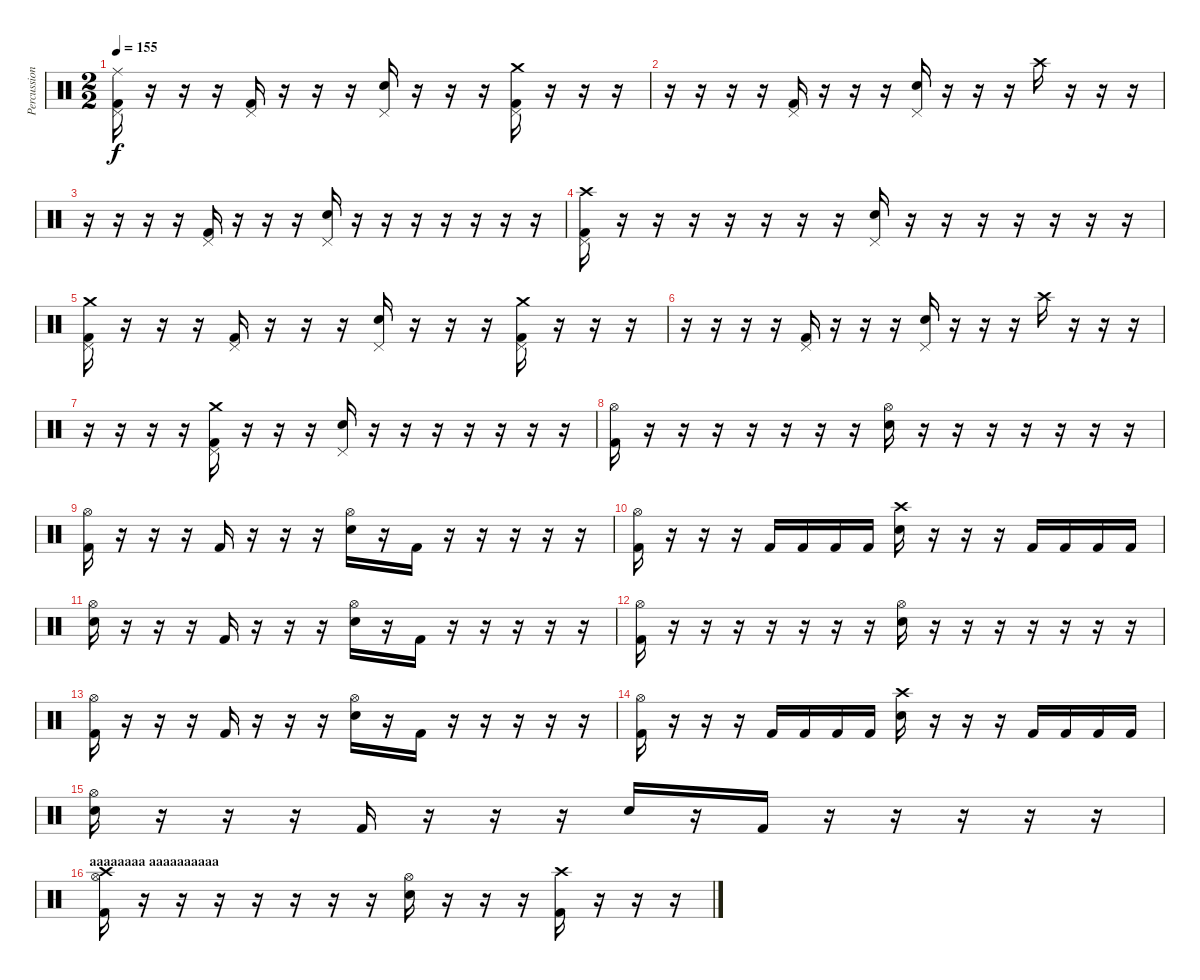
\track ("Percussion" "Percussion") {instrument percussion}
\staff {score}
\articulation defaults
\ts (2 2)
\tempo 155
\clef neutral
\ks c
("Ride (middle)" "Pedal Hi-Hat (hit)" "Kick (hit) 2").16{dy f} r.16 r.16 r.16 ("Pedal Hi-Hat (hit)" "Kick (hit) 2").16 r.16 r.16 r.16 ("Pedal Hi-Hat (hit)" "Snare (hit) 2").16 r.16 r.16 r.16 ("Crash medium (hit)" "Pedal Hi-Hat (hit)" "Kick (hit) 2").16 r.16 r.16 r.16 |
r.16 r.16 r.16 r.16 ("Pedal Hi-Hat (hit)" "Kick (hit) 2").16 r.16 r.16 r.16 ("Pedal Hi-Hat (hit)" "Snare (hit) 2").16 r.16 r.16 r.16 "Crash high (hit)".16 r.16 r.16 r.16 |
r.16 r.16 r.16 r.16 ("Pedal Hi-Hat (hit)" "Kick (hit) 2").16 r.16 r.16 r.16 ("Pedal Hi-Hat (hit)" "Snare (hit) 2").16 r.16 r.16 r.16 r.16 r.16 r.16 r.16 |
("Crash high (hit)" "Pedal Hi-Hat (hit)" "Kick (hit) 2").16 r.16 r.16 r.16 r.16 r.16 r.16 r.16 ("Pedal Hi-Hat (hit)" "Snare (hit) 2").16 r.16 r.16 r.16 r.16 r.16 r.16 r.16 |
("Crash medium (hit)" "Pedal Hi-Hat (hit)" "Kick (hit) 2").16 r.16 r.16 r.16 ("Pedal Hi-Hat (hit)" "Kick (hit) 2").16 r.16 r.16 r.16 ("Pedal Hi-Hat (hit)" "Snare (hit) 2").16 r.16 r.16 r.16 ("Crash medium (hit)" "Pedal Hi-Hat (hit)" "Kick (hit) 2").16 r.16 r.16 r.16 |
r.16 r.16 r.16 r.16 ("Pedal Hi-Hat (hit)" "Kick (hit) 2").16 r.16 r.16 r.16 ("Pedal Hi-Hat (hit)" "Snare (hit) 2").16 r.16 r.16 r.16 "Crash high (hit)".16 r.16 r.16 r.16 |
r.16 r.16 r.16 r.16 ("Crash medium (hit)" "Pedal Hi-Hat (hit)" "Kick (hit) 2").16 r.16 r.16 r.16 ("Pedal Hi-Hat (hit)" "Snare (hit) 2").16 r.16 r.16 r.16 r.16 r.16 r.16 r.16 |
("Hi-Hat (open)" "Kick (hit) 2").16 r.16 r.16 r.16 r.16 r.16 r.16 r.16 ("Hi-Hat (open)" "Snare (hit) 2").16 r.16 r.16 r.16 r.16 r.16 r.16 r.16 |
("Hi-Hat (open)" "Kick (hit) 2").16 r.16 r.16 r.16 "Kick (hit) 2".16 r.16 r.16 r.16 ("Hi-Hat (open)" "Snare (hit) 2").16 r.16 "Kick (hit) 2".16 r.16 r.16 r.16 r.16 r.16 |
("Hi-Hat (open)" "Kick (hit) 2").16 r.16 r.16 r.16 "Kick (hit) 2".16 "Kick (hit) 2".16 "Kick (hit) 2".16 "Kick (hit) 2".16 ("Crash high (hit)" "Snare (hit) 2").16 r.16 r.16 r.16 "Kick (hit) 2".16 "Kick (hit) 2".16 "Kick (hit) 2".16 "Kick (hit) 2".16 |
("Hi-Hat (open)" "Snare (hit) 2").16 r.16 r.16 r.16 "Kick (hit) 2".16 r.16 r.16 r.16 ("Hi-Hat (open)" "Snare (hit) 2").16 r.16 "Kick (hit) 2".16 r.16 r.16 r.16 r.16 r.16 |
("Hi-Hat (open)" "Kick (hit) 2").16 r.16 r.16 r.16 r.16 r.16 r.16 r.16 ("Hi-Hat (open)" "Snare (hit) 2").16 r.16 r.16 r.16 r.16 r.16 r.16 r.16 |
("Hi-Hat (open)" "Kick (hit) 2").16 r.16 r.16 r.16 "Kick (hit) 2".16 r.16 r.16 r.16 ("Hi-Hat (open)" "Snare (hit) 2").16 r.16 "Kick (hit) 2".16 r.16 r.16 r.16 r.16 r.16 |
("Hi-Hat (open)" "Kick (hit) 2").16 r.16 r.16 r.16 "Kick (hit) 2".16 "Kick (hit) 2".16 "Kick (hit) 2".16 "Kick (hit) 2".16 ("Crash high (hit)" "Snare (hit) 2").16 r.16 r.16 r.16 "Kick (hit) 2".16 "Kick (hit) 2".16 "Kick (hit) 2".16 "Kick (hit) 2".16 |
("Hi-Hat (open)" "Snare (hit) 2").16 r.16 r.16 r.16 "Kick (hit) 2".16 r.16 r.16 r.16 "Snare (hit) 2".16 r.16 "Kick (hit) 2".16 r.16 r.16 r.16 r.16 r.16 |
\section ("" "aaaaaaaa aaaaaaaaaa")
("Hi-Hat (open)" "Crash high (hit)" "Kick (hit) 2").16 r.16 r.16 r.16 r.16 r.16 r.16 r.16 ("Hi-Hat (open)" "Snare (hit) 2").16 r.16 r.16 r.16 ("Crash high (hit)" "Kick (hit) 2").16 r.16 r.16 r.16
